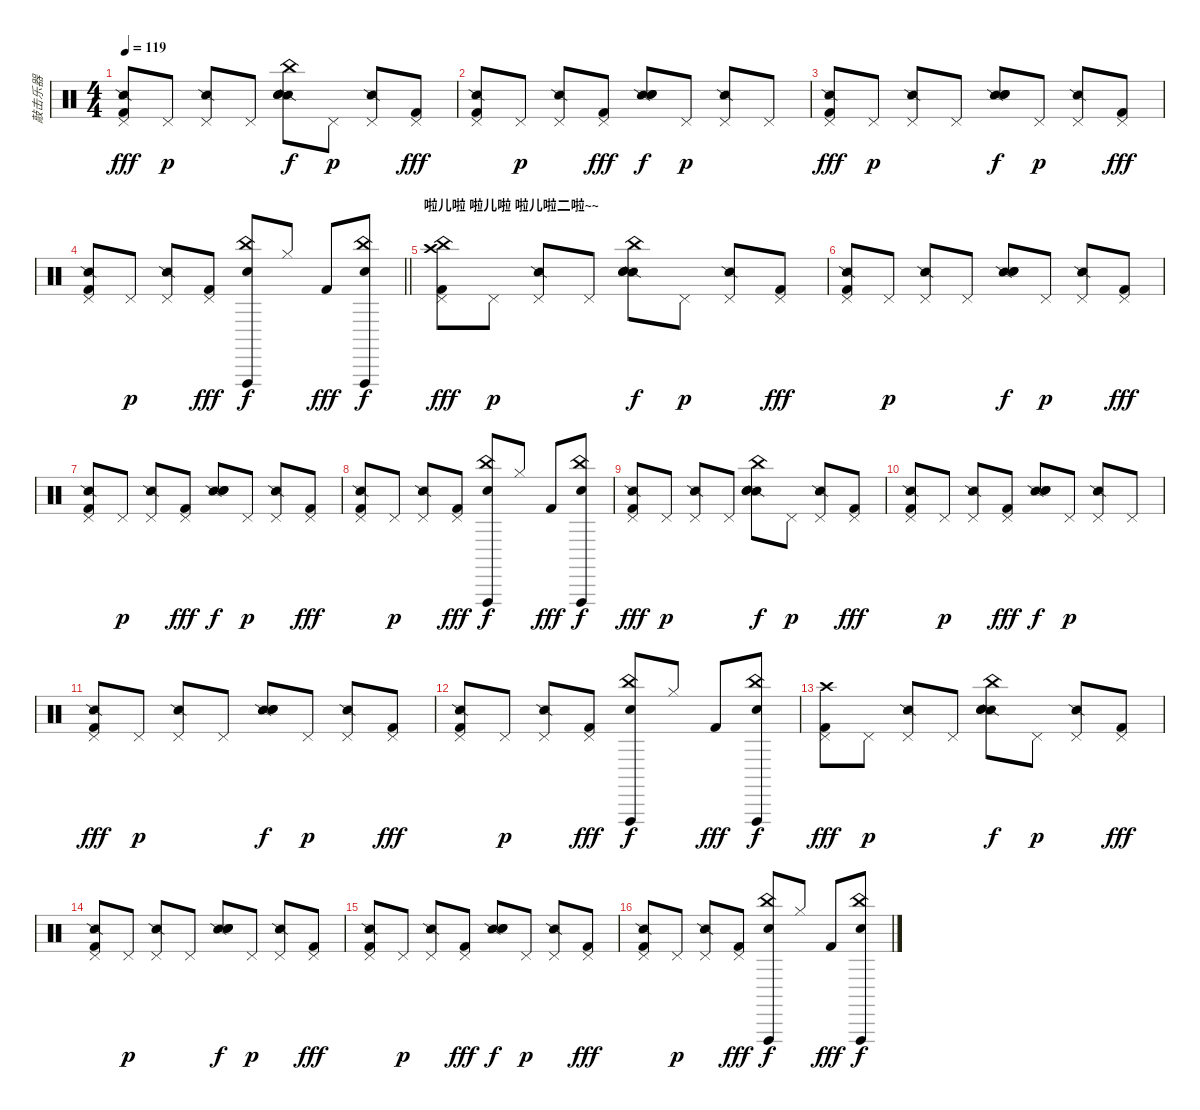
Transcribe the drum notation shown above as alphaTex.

\track ("敲击乐器" "敲击乐器") {instrument percussion}
\staff {score}
\articulation defaults
\ts (4 4)
\tempo 119
\clef neutral
\ks c
("Snare (side stick) 2" "Pedal Hi-Hat (hit)" "Kick (hit) 2").8{dy fff} "Pedal Hi-Hat (hit)".8{dy p} ("Snare (side stick) 2" "Pedal Hi-Hat (hit)").8 "Pedal Hi-Hat (hit)".8 ("Snare (side stick) 2" "Snare (hit) 2" "Hand Clap (hit)" "China (hit)").8{dy f} "Pedal Hi-Hat (hit)".8{dy p} ("Snare (side stick) 2" "Pedal Hi-Hat (hit)").8 ("Pedal Hi-Hat (hit)" "Kick (hit) 2").8{dy fff} |
("Snare (side stick) 2" "Pedal Hi-Hat (hit)" "Kick (hit) 2").8 "Pedal Hi-Hat (hit)".8{dy p} ("Snare (side stick) 2" "Pedal Hi-Hat (hit)").8 ("Pedal Hi-Hat (hit)" "Kick (hit) 2").8{dy fff} ("Snare (side stick) 2" "Snare (hit) 2" "Hand Clap (hit)").8{dy f} "Pedal Hi-Hat (hit)".8{dy p} ("Snare (side stick) 2" "Pedal Hi-Hat (hit)").8 "Pedal Hi-Hat (hit)".8 |
("Snare (side stick) 2" "Pedal Hi-Hat (hit)" "Kick (hit) 2").8{dy fff} "Pedal Hi-Hat (hit)".8{dy p} ("Snare (side stick) 2" "Pedal Hi-Hat (hit)").8 "Pedal Hi-Hat (hit)".8 ("Snare (side stick) 2" "Snare (hit) 2" "Hand Clap (hit)").8{dy f} "Pedal Hi-Hat (hit)".8{dy p} ("Snare (side stick) 2" "Pedal Hi-Hat (hit)").8 ("Pedal Hi-Hat (hit)" "Kick (hit) 2").8{dy fff} |
\barLineRight lightlight
("Snare (side stick) 2" "Pedal Hi-Hat (hit)" "Kick (hit) 2").8 "Pedal Hi-Hat (hit)".8{dy p} ("Snare (side stick) 2" "Pedal Hi-Hat (hit)").8 ("Pedal Hi-Hat (hit)" "Kick (hit) 2").8{dy fff} ("China (hit)" "Vibraslap (hit)" "Hand Clap (hit)").8{dy f} "Hi-Hat (closed)".8 "Kick (hit) 2".8{dy fff} ("China (hit)" "Vibraslap (hit)" "Hand Clap (hit)").8{dy f} |
\section ("" "啦儿啦 啦儿啦 啦儿啦二啦~~")
("China (hit)" "Crash high (hit)" "Pedal Hi-Hat (hit)" "Kick (hit) 2").8{dy fff} "Pedal Hi-Hat (hit)".8{dy p} ("Snare (side stick) 2" "Pedal Hi-Hat (hit)").8 "Pedal Hi-Hat (hit)".8 ("Snare (side stick) 2" "Snare (hit) 2" "Hand Clap (hit)" "China (hit)").8{dy f} "Pedal Hi-Hat (hit)".8{dy p} ("Snare (side stick) 2" "Pedal Hi-Hat (hit)").8 ("Pedal Hi-Hat (hit)" "Kick (hit) 2").8{dy fff} |
("Snare (side stick) 2" "Pedal Hi-Hat (hit)" "Kick (hit) 2").8 "Pedal Hi-Hat (hit)".8{dy p} ("Snare (side stick) 2" "Pedal Hi-Hat (hit)").8 "Pedal Hi-Hat (hit)".8 ("Snare (side stick) 2" "Snare (hit) 2" "Hand Clap (hit)").8{dy f} "Pedal Hi-Hat (hit)".8{dy p} ("Snare (side stick) 2" "Pedal Hi-Hat (hit)").8 ("Pedal Hi-Hat (hit)" "Kick (hit) 2").8{dy fff} |
("Snare (side stick) 2" "Pedal Hi-Hat (hit)" "Kick (hit) 2").8 "Pedal Hi-Hat (hit)".8{dy p} ("Snare (side stick) 2" "Pedal Hi-Hat (hit)").8 ("Pedal Hi-Hat (hit)" "Kick (hit) 2").8{dy fff} ("Snare (side stick) 2" "Snare (hit) 2" "Hand Clap (hit)").8{dy f} "Pedal Hi-Hat (hit)".8{dy p} ("Snare (side stick) 2" "Pedal Hi-Hat (hit)").8 ("Pedal Hi-Hat (hit)" "Kick (hit) 2").8{dy fff} |
("Snare (side stick) 2" "Pedal Hi-Hat (hit)" "Kick (hit) 2").8 "Pedal Hi-Hat (hit)".8{dy p} ("Snare (side stick) 2" "Pedal Hi-Hat (hit)").8 ("Pedal Hi-Hat (hit)" "Kick (hit) 2").8{dy fff} ("China (hit)" "Vibraslap (hit)" "Hand Clap (hit)").8{dy f} "Hi-Hat (closed)".8 "Kick (hit) 2".8{dy fff} ("China (hit)" "Vibraslap (hit)" "Hand Clap (hit)").8{dy f} |
("Snare (side stick) 2" "Pedal Hi-Hat (hit)" "Kick (hit) 2").8{dy fff} "Pedal Hi-Hat (hit)".8{dy p} ("Snare (side stick) 2" "Pedal Hi-Hat (hit)").8 "Pedal Hi-Hat (hit)".8 ("Snare (side stick) 2" "Snare (hit) 2" "Hand Clap (hit)" "China (hit)").8{dy f} "Pedal Hi-Hat (hit)".8{dy p} ("Snare (side stick) 2" "Pedal Hi-Hat (hit)").8 ("Pedal Hi-Hat (hit)" "Kick (hit) 2").8{dy fff} |
("Snare (side stick) 2" "Pedal Hi-Hat (hit)" "Kick (hit) 2").8 "Pedal Hi-Hat (hit)".8{dy p} ("Snare (side stick) 2" "Pedal Hi-Hat (hit)").8 ("Pedal Hi-Hat (hit)" "Kick (hit) 2").8{dy fff} ("Snare (side stick) 2" "Snare (hit) 2" "Hand Clap (hit)").8{dy f} "Pedal Hi-Hat (hit)".8{dy p} ("Snare (side stick) 2" "Pedal Hi-Hat (hit)").8 "Pedal Hi-Hat (hit)".8 |
("Snare (side stick) 2" "Pedal Hi-Hat (hit)" "Kick (hit) 2").8{dy fff} "Pedal Hi-Hat (hit)".8{dy p} ("Snare (side stick) 2" "Pedal Hi-Hat (hit)").8 "Pedal Hi-Hat (hit)".8 ("Snare (side stick) 2" "Snare (hit) 2" "Hand Clap (hit)").8{dy f} "Pedal Hi-Hat (hit)".8{dy p} ("Snare (side stick) 2" "Pedal Hi-Hat (hit)").8 ("Pedal Hi-Hat (hit)" "Kick (hit) 2").8{dy fff} |
("Snare (side stick) 2" "Pedal Hi-Hat (hit)" "Kick (hit) 2").8 "Pedal Hi-Hat (hit)".8{dy p} ("Snare (side stick) 2" "Pedal Hi-Hat (hit)").8 ("Pedal Hi-Hat (hit)" "Kick (hit) 2").8{dy fff} ("China (hit)" "Vibraslap (hit)" "Hand Clap (hit)").8{dy f} "Hi-Hat (closed)".8 "Kick (hit) 2".8{dy fff} ("China (hit)" "Vibraslap (hit)" "Hand Clap (hit)").8{dy f} |
("Crash high (hit)" "Pedal Hi-Hat (hit)" "Kick (hit) 2").8{dy fff} "Pedal Hi-Hat (hit)".8{dy p} ("Snare (side stick) 2" "Pedal Hi-Hat (hit)").8 "Pedal Hi-Hat (hit)".8 ("Snare (side stick) 2" "Snare (hit) 2" "Hand Clap (hit)" "China (hit)").8{dy f} "Pedal Hi-Hat (hit)".8{dy p} ("Snare (side stick) 2" "Pedal Hi-Hat (hit)").8 ("Pedal Hi-Hat (hit)" "Kick (hit) 2").8{dy fff} |
("Snare (side stick) 2" "Pedal Hi-Hat (hit)" "Kick (hit) 2").8 "Pedal Hi-Hat (hit)".8{dy p} ("Snare (side stick) 2" "Pedal Hi-Hat (hit)").8 "Pedal Hi-Hat (hit)".8 ("Snare (side stick) 2" "Snare (hit) 2" "Hand Clap (hit)").8{dy f} "Pedal Hi-Hat (hit)".8{dy p} ("Snare (side stick) 2" "Pedal Hi-Hat (hit)").8 ("Pedal Hi-Hat (hit)" "Kick (hit) 2").8{dy fff} |
("Snare (side stick) 2" "Pedal Hi-Hat (hit)" "Kick (hit) 2").8 "Pedal Hi-Hat (hit)".8{dy p} ("Snare (side stick) 2" "Pedal Hi-Hat (hit)").8 ("Pedal Hi-Hat (hit)" "Kick (hit) 2").8{dy fff} ("Snare (side stick) 2" "Snare (hit) 2" "Hand Clap (hit)").8{dy f} "Pedal Hi-Hat (hit)".8{dy p} ("Snare (side stick) 2" "Pedal Hi-Hat (hit)").8 ("Pedal Hi-Hat (hit)" "Kick (hit) 2").8{dy fff} |
("Snare (side stick) 2" "Pedal Hi-Hat (hit)" "Kick (hit) 2").8 "Pedal Hi-Hat (hit)".8{dy p} ("Snare (side stick) 2" "Pedal Hi-Hat (hit)").8 ("Pedal Hi-Hat (hit)" "Kick (hit) 2").8{dy fff} ("China (hit)" "Vibraslap (hit)" "Hand Clap (hit)").8{dy f} "Hi-Hat (closed)".8 "Kick (hit) 2".8{dy fff} ("China (hit)" "Vibraslap (hit)" "Hand Clap (hit)").8{dy f}
